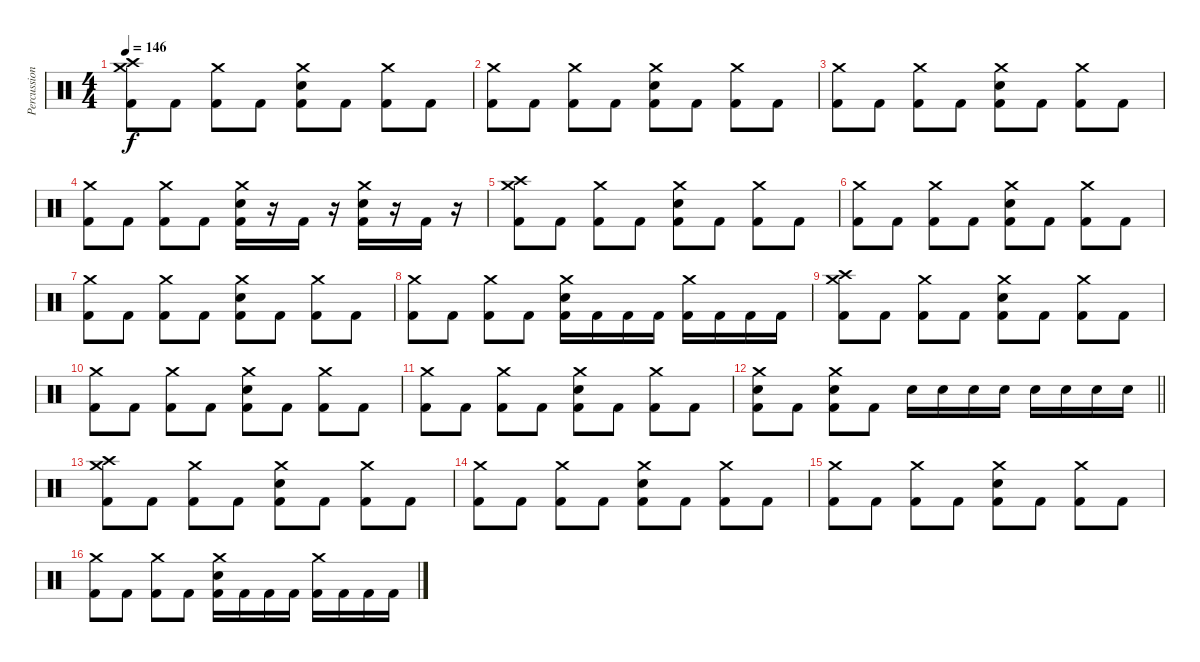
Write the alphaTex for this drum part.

\track ("Percussion" "Percussion") {instrument percussion}
\staff {score}
\articulation defaults
\ts (4 4)
\tempo 146
\clef neutral
\ks c
("Crash high (hit)" "Crash medium (hit)" "Kick (hit) 2").8{dy f} "Kick (hit) 2".8 ("Crash medium (hit)" "Kick (hit) 2").8 "Kick (hit) 2".8 ("Crash medium (hit)" "Snare (hit) 2" "Kick (hit) 2").8 "Kick (hit) 2".8 ("Crash medium (hit)" "Kick (hit) 2").8 "Kick (hit) 2".8 |
("Crash medium (hit)" "Kick (hit) 2").8 "Kick (hit) 2".8 ("Crash medium (hit)" "Kick (hit) 2").8 "Kick (hit) 2".8 ("Crash medium (hit)" "Snare (hit) 2" "Kick (hit) 2").8 "Kick (hit) 2".8 ("Crash medium (hit)" "Kick (hit) 2").8 "Kick (hit) 2".8 |
("Crash medium (hit)" "Kick (hit) 2").8 "Kick (hit) 2".8 ("Crash medium (hit)" "Kick (hit) 2").8 "Kick (hit) 2".8 ("Crash medium (hit)" "Snare (hit) 2" "Kick (hit) 2").8 "Kick (hit) 2".8 ("Crash medium (hit)" "Kick (hit) 2").8 "Kick (hit) 2".8 |
("Crash medium (hit)" "Kick (hit) 2").8 "Kick (hit) 2".8 ("Crash medium (hit)" "Kick (hit) 2").8 "Kick (hit) 2".8 ("Crash medium (hit)" "Snare (hit) 2" "Kick (hit) 2").16 r.16 "Kick (hit) 2".16 r.16 ("Crash medium (hit)" "Snare (hit) 2" "Kick (hit) 2").16 r.16 "Kick (hit) 2".16 r.16 |
("Crash high (hit)" "Crash medium (hit)" "Kick (hit) 2").8 "Kick (hit) 2".8 ("Crash medium (hit)" "Kick (hit) 2").8 "Kick (hit) 2".8 ("Crash medium (hit)" "Snare (hit) 2" "Kick (hit) 2").8 "Kick (hit) 2".8 ("Crash medium (hit)" "Kick (hit) 2").8 "Kick (hit) 2".8 |
("Crash medium (hit)" "Kick (hit) 2").8 "Kick (hit) 2".8 ("Crash medium (hit)" "Kick (hit) 2").8 "Kick (hit) 2".8 ("Crash medium (hit)" "Snare (hit) 2" "Kick (hit) 2").8 "Kick (hit) 2".8 ("Crash medium (hit)" "Kick (hit) 2").8 "Kick (hit) 2".8 |
("Crash medium (hit)" "Kick (hit) 2").8 "Kick (hit) 2".8 ("Crash medium (hit)" "Kick (hit) 2").8 "Kick (hit) 2".8 ("Crash medium (hit)" "Snare (hit) 2" "Kick (hit) 2").8 "Kick (hit) 2".8 ("Crash medium (hit)" "Kick (hit) 2").8 "Kick (hit) 2".8 |
("Crash medium (hit)" "Kick (hit) 2").8 "Kick (hit) 2".8 ("Crash medium (hit)" "Kick (hit) 2").8 "Kick (hit) 2".8 ("Crash medium (hit)" "Snare (hit) 2" "Kick (hit) 2").16 "Kick (hit) 2".16 "Kick (hit) 2".16 "Kick (hit) 2".16 ("Crash medium (hit)" "Kick (hit) 2").16 "Kick (hit) 2".16 "Kick (hit) 2".16 "Kick (hit) 2".16 |
("Crash high (hit)" "Crash medium (hit)" "Kick (hit) 2").8 "Kick (hit) 2".8 ("Crash medium (hit)" "Kick (hit) 2").8 "Kick (hit) 2".8 ("Crash medium (hit)" "Snare (hit) 2" "Kick (hit) 2").8 "Kick (hit) 2".8 ("Crash medium (hit)" "Kick (hit) 2").8 "Kick (hit) 2".8 |
("Crash medium (hit)" "Kick (hit) 2").8 "Kick (hit) 2".8 ("Crash medium (hit)" "Kick (hit) 2").8 "Kick (hit) 2".8 ("Crash medium (hit)" "Snare (hit) 2" "Kick (hit) 2").8 "Kick (hit) 2".8 ("Crash medium (hit)" "Kick (hit) 2").8 "Kick (hit) 2".8 |
("Crash medium (hit)" "Kick (hit) 2").8 "Kick (hit) 2".8 ("Crash medium (hit)" "Kick (hit) 2").8 "Kick (hit) 2".8 ("Crash medium (hit)" "Snare (hit) 2" "Kick (hit) 2").8 "Kick (hit) 2".8 ("Crash medium (hit)" "Kick (hit) 2").8 "Kick (hit) 2".8 |
\barLineRight lightlight
("Crash medium (hit)" "Snare (hit) 2" "Kick (hit) 2").8 "Kick (hit) 2".8 ("Crash medium (hit)" "Snare (hit) 2" "Kick (hit) 2").8 "Kick (hit) 2".8 "Snare (hit) 2".16 "Snare (hit) 2".16 "Snare (hit) 2".16 "Snare (hit) 2".16 "Snare (hit) 2".16 "Snare (hit) 2".16 "Snare (hit) 2".16 "Snare (hit) 2".16 |
("Crash high (hit)" "Crash medium (hit)" "Kick (hit) 2").8 "Kick (hit) 2".8 ("Crash medium (hit)" "Kick (hit) 2").8 "Kick (hit) 2".8 ("Crash medium (hit)" "Snare (hit) 2" "Kick (hit) 2").8 "Kick (hit) 2".8 ("Crash medium (hit)" "Kick (hit) 2").8 "Kick (hit) 2".8 |
("Crash medium (hit)" "Kick (hit) 2").8 "Kick (hit) 2".8 ("Crash medium (hit)" "Kick (hit) 2").8 "Kick (hit) 2".8 ("Crash medium (hit)" "Snare (hit) 2" "Kick (hit) 2").8 "Kick (hit) 2".8 ("Crash medium (hit)" "Kick (hit) 2").8 "Kick (hit) 2".8 |
("Crash medium (hit)" "Kick (hit) 2").8 "Kick (hit) 2".8 ("Crash medium (hit)" "Kick (hit) 2").8 "Kick (hit) 2".8 ("Crash medium (hit)" "Snare (hit) 2" "Kick (hit) 2").8 "Kick (hit) 2".8 ("Crash medium (hit)" "Kick (hit) 2").8 "Kick (hit) 2".8 |
("Crash medium (hit)" "Kick (hit) 2").8 "Kick (hit) 2".8 ("Crash medium (hit)" "Kick (hit) 2").8 "Kick (hit) 2".8 ("Crash medium (hit)" "Snare (hit) 2" "Kick (hit) 2").16 "Kick (hit) 2".16 "Kick (hit) 2".16 "Kick (hit) 2".16 ("Crash medium (hit)" "Kick (hit) 2").16 "Kick (hit) 2".16 "Kick (hit) 2".16 "Kick (hit) 2".16
